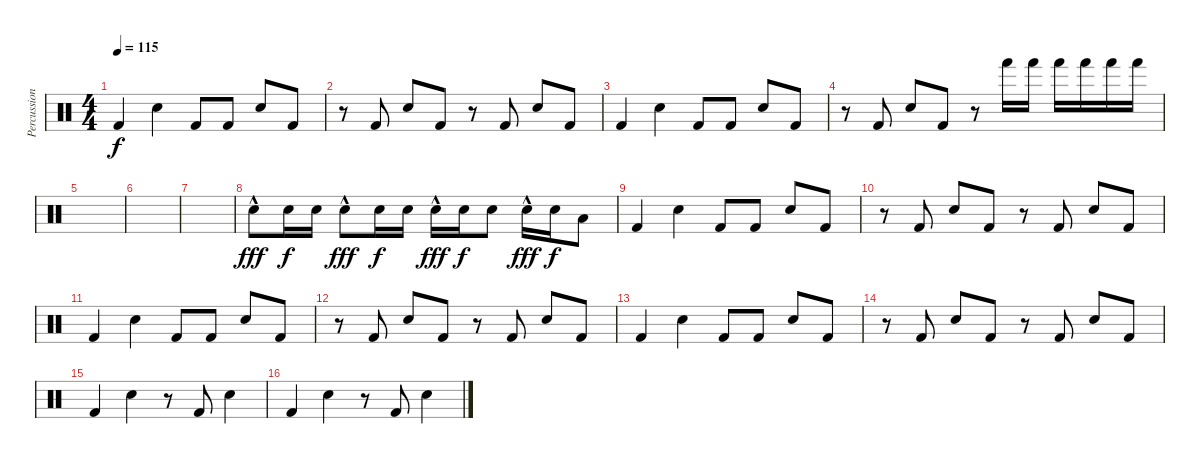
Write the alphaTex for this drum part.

\track ("Percussion" "Percussion") {instrument percussion}
\staff {score}
\articulation defaults
\ts (4 4)
\tempo 115
\clef neutral
\ks c "Kick (hit) 2".4{dy f} "Snare (hit) 2".4 "Kick (hit) 2".8 "Kick (hit) 2".8 "Snare (hit) 2".8 "Kick (hit) 2".8
|
r.8 "Kick (hit) 2".8 "Snare (hit) 2".8 "Kick (hit) 2".8 r.8 "Kick (hit) 2".8 "Snare (hit) 2".8 "Kick (hit) 2".8 |
"Kick (hit) 2".4 "Snare (hit) 2".4 "Kick (hit) 2".8 "Kick (hit) 2".8 "Snare (hit) 2".8 "Kick (hit) 2".8 |
r.8 "Kick (hit) 2".8 "Snare (hit) 2".8 "Kick (hit) 2".8 r.8 "Hand (hit)".16 "Hand (hit)".16 "Hand (hit)".16 "Hand (hit)".16 "Hand (hit)".16 "Hand (hit)".16 |
|
|
|
"Electric Snare (hit)"{hac}.8{dy fff} "Electric Snare (hit)".16{dy f} "Electric Snare (hit)".16 "Electric Snare (hit)"{hac}.8{dy fff} "Electric Snare (hit)".16{dy f} "Electric Snare (hit)".16 "Electric Snare (hit)"{hac}.16{dy fff} "Electric Snare (hit)".16{dy f} "Electric Snare (hit)".8 "Electric Snare (hit)"{hac}.16{dy fff} "Electric Snare (hit)".16{dy f} "Low Tom (hit)".8 |
"Kick (hit) 2".4 "Snare (hit) 2".4 "Kick (hit) 2".8 "Kick (hit) 2".8 "Snare (hit) 2".8 "Kick (hit) 2".8 |
r.8 "Kick (hit) 2".8 "Snare (hit) 2".8 "Kick (hit) 2".8 r.8 "Kick (hit) 2".8 "Snare (hit) 2".8 "Kick (hit) 2".8 |
"Kick (hit) 2".4 "Snare (hit) 2".4 "Kick (hit) 2".8 "Kick (hit) 2".8 "Snare (hit) 2".8 "Kick (hit) 2".8 |
r.8 "Kick (hit) 2".8 "Snare (hit) 2".8 "Kick (hit) 2".8 r.8 "Kick (hit) 2".8 "Snare (hit) 2".8 "Kick (hit) 2".8 |
"Kick (hit) 2".4 "Snare (hit) 2".4 "Kick (hit) 2".8 "Kick (hit) 2".8 "Snare (hit) 2".8 "Kick (hit) 2".8 |
r.8 "Kick (hit) 2".8 "Snare (hit) 2".8 "Kick (hit) 2".8 r.8 "Kick (hit) 2".8 "Snare (hit) 2".8 "Kick (hit) 2".8 |
"Kick (hit) 2".4 "Electric Snare (hit)".4 r.8 "Kick (hit) 2".8 "Electric Snare (hit)".4 |
"Kick (hit) 2".4 "Electric Snare (hit)".4 r.8 "Kick (hit) 2".8 "Electric Snare (hit)".4
